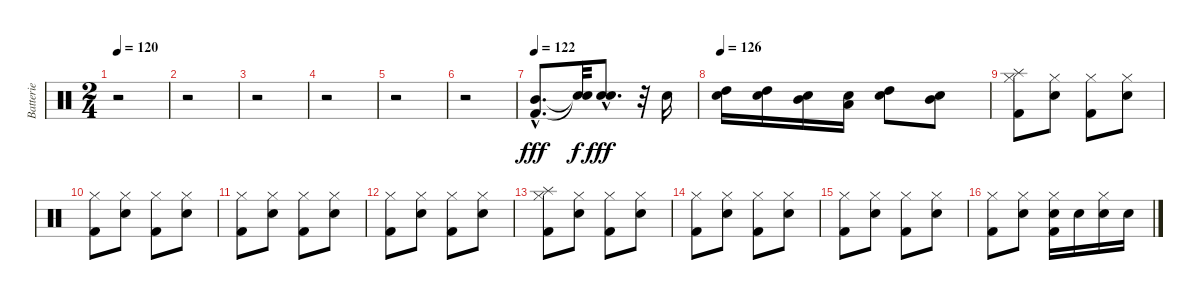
\track ("Batterie" "Batterie") {instrument percussion}
\staff {score}
\articulation defaults
\ts (2 4)
\tempo 120
\clef neutral
\ks c
r.2{dy fff} |
r.2 |
r.2 |
r.2 |
r.2 |
r.2 |
\tempo 122
("Kick (hit) 2"{hac} "Mid Tom (hit)"{hac}).8{d} ("Snare (hit)"{t} "Snare (hit)"{t}).32{dy f} ("Electric Snare (hit)" "Snare (hit) 2"{hac}).8{d dy fff} r.32 "Snare (hit) 2".16 |
\tempo 126
("Electric Snare (hit)" "High Tom (hit)").16 ("Electric Snare (hit)" "High Tom (hit)").16 ("Electric Snare (hit)" "Mid Tom (hit)").16 ("Electric Snare (hit)" "Low Tom (hit)").16 ("High Tom (hit)" "Electric Snare (hit)").8 ("Mid Tom (hit)" "Electric Snare (hit)").8 |
("Splash (hit)" "Hi-Hat (closed)" "Kick (hit) 2").8 ("Hi-Hat (closed)" "Electric Snare (hit)").8 ("Hi-Hat (closed)" "Kick (hit) 2").8 ("Hi-Hat (closed)" "Electric Snare (hit)").8 |
("Hi-Hat (closed)" "Kick (hit) 2").8 ("Hi-Hat (closed)" "Electric Snare (hit)").8 ("Hi-Hat (closed)" "Kick (hit) 2").8 ("Hi-Hat (closed)" "Electric Snare (hit)").8 |
("Hi-Hat (closed)" "Kick (hit) 2").8 ("Hi-Hat (closed)" "Electric Snare (hit)").8 ("Hi-Hat (closed)" "Kick (hit) 2").8 ("Hi-Hat (closed)" "Electric Snare (hit)").8 |
("Hi-Hat (closed)" "Kick (hit) 2").8 ("Hi-Hat (closed)" "Electric Snare (hit)").8 ("Hi-Hat (closed)" "Kick (hit) 2").8 ("Hi-Hat (closed)" "Electric Snare (hit)").8 |
("Splash (hit)" "Hi-Hat (closed)" "Kick (hit) 2").8 ("Hi-Hat (closed)" "Electric Snare (hit)").8 ("Hi-Hat (closed)" "Kick (hit) 2").8 ("Hi-Hat (closed)" "Electric Snare (hit)").8 |
("Hi-Hat (closed)" "Kick (hit) 2").8 ("Hi-Hat (closed)" "Electric Snare (hit)").8 ("Hi-Hat (closed)" "Kick (hit) 2").8 ("Hi-Hat (closed)" "Electric Snare (hit)").8 |
("Hi-Hat (closed)" "Kick (hit) 2").8 ("Hi-Hat (closed)" "Electric Snare (hit)").8 ("Hi-Hat (closed)" "Kick (hit) 2").8 ("Hi-Hat (closed)" "Electric Snare (hit)").8 |
("Hi-Hat (closed)" "Kick (hit) 2").8 ("Hi-Hat (closed)" "Electric Snare (hit)").8 ("Electric Snare (hit)" "Hi-Hat (closed)" "Kick (hit) 2").16 "Electric Snare (hit)".16 ("Electric Snare (hit)" "Hi-Hat (closed)").16 "Electric Snare (hit)".16
